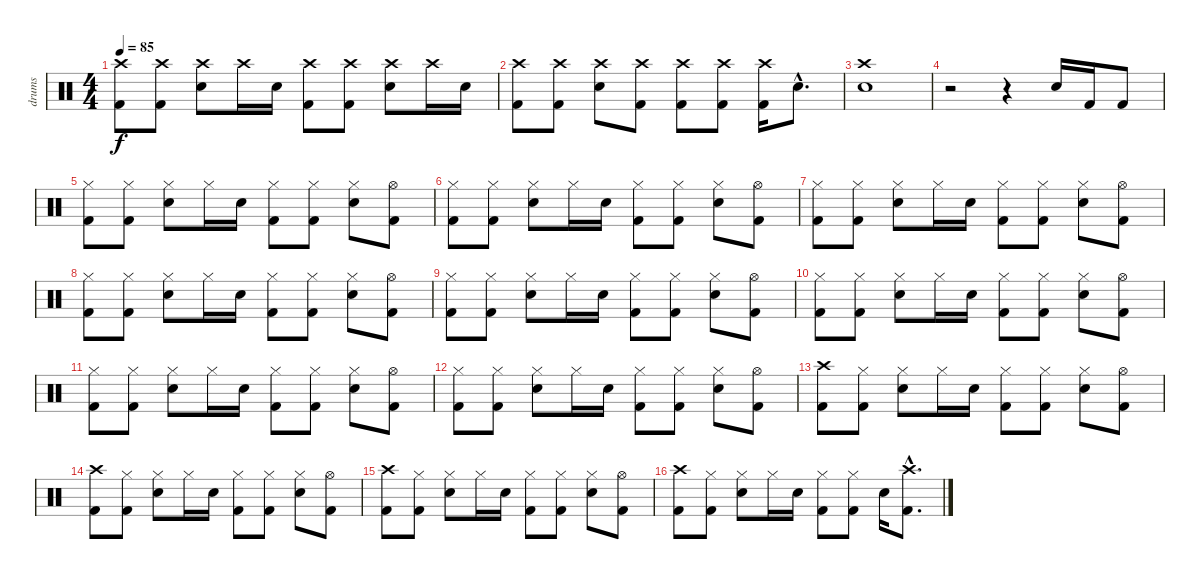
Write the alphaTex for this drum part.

\track ("drums" "drums") {instrument percussion}
\staff {score}
\articulation defaults
\ts (4 4)
\tempo 85
\clef neutral
\ks c
("Crash high (hit)" "Kick (hit) 2").8{dy f} ("Crash high (hit)" "Kick (hit) 2").8 ("Crash high (hit)" "Snare (hit) 2").8 "Crash high (hit)".16 "Snare (hit) 2".16 ("Crash high (hit)" "Kick (hit) 2").8 ("Crash high (hit)" "Kick (hit) 2").8 ("Crash high (hit)" "Snare (hit) 2").8 "Crash high (hit)".16 "Snare (hit) 2".16 |
("Crash high (hit)" "Kick (hit) 2").8 ("Crash high (hit)" "Kick (hit) 2").8 ("Crash high (hit)" "Snare (hit) 2").8 ("Crash high (hit)" "Kick (hit) 2").8 ("Crash high (hit)" "Kick (hit) 2").8 ("Crash high (hit)" "Kick (hit) 2").8 ("Crash high (hit)" "Kick (hit) 2").16 "Snare (hit) 2"{hac}.8{d} |
("Crash high (hit)" "Snare (hit) 2").1 |
r.2 r.4 "Snare (hit) 2".16 "Kick (hit) 2".16 "Kick (hit) 2".8 |
("Hi-Hat (closed)" "Kick (hit) 2").8 ("Hi-Hat (closed)" "Kick (hit) 2").8 ("Hi-Hat (closed)" "Snare (hit) 2").8 "Hi-Hat (closed)".16 "Snare (hit) 2".16 ("Hi-Hat (closed)" "Kick (hit) 2").8 ("Hi-Hat (closed)" "Kick (hit) 2").8 ("Hi-Hat (closed)" "Snare (hit) 2").8 ("Hi-Hat (open)" "Kick (hit) 2").8 |
("Hi-Hat (closed)" "Kick (hit) 2").8 ("Hi-Hat (closed)" "Kick (hit) 2").8 ("Hi-Hat (closed)" "Snare (hit) 2").8 "Hi-Hat (closed)".16 "Snare (hit) 2".16 ("Hi-Hat (closed)" "Kick (hit) 2").8 ("Hi-Hat (closed)" "Kick (hit) 2").8 ("Hi-Hat (closed)" "Snare (hit) 2").8 ("Hi-Hat (open)" "Kick (hit) 2").8 |
("Hi-Hat (closed)" "Kick (hit) 2").8 ("Hi-Hat (closed)" "Kick (hit) 2").8 ("Hi-Hat (closed)" "Snare (hit) 2").8 "Hi-Hat (closed)".16 "Snare (hit) 2".16 ("Hi-Hat (closed)" "Kick (hit) 2").8 ("Hi-Hat (closed)" "Kick (hit) 2").8 ("Hi-Hat (closed)" "Snare (hit) 2").8 ("Hi-Hat (open)" "Kick (hit) 2").8 |
("Hi-Hat (closed)" "Kick (hit) 2").8 ("Hi-Hat (closed)" "Kick (hit) 2").8 ("Hi-Hat (closed)" "Snare (hit) 2").8 "Hi-Hat (closed)".16 "Snare (hit) 2".16 ("Hi-Hat (closed)" "Kick (hit) 2").8 ("Hi-Hat (closed)" "Kick (hit) 2").8 ("Hi-Hat (closed)" "Snare (hit) 2").8 ("Hi-Hat (open)" "Kick (hit) 2").8 |
("Hi-Hat (closed)" "Kick (hit) 2").8 ("Hi-Hat (closed)" "Kick (hit) 2").8 ("Hi-Hat (closed)" "Snare (hit) 2").8 "Hi-Hat (closed)".16 "Snare (hit) 2".16 ("Hi-Hat (closed)" "Kick (hit) 2").8 ("Hi-Hat (closed)" "Kick (hit) 2").8 ("Hi-Hat (closed)" "Snare (hit) 2").8 ("Hi-Hat (open)" "Kick (hit) 2").8 |
("Hi-Hat (closed)" "Kick (hit) 2").8 ("Hi-Hat (closed)" "Kick (hit) 2").8 ("Hi-Hat (closed)" "Snare (hit) 2").8 "Hi-Hat (closed)".16 "Snare (hit) 2".16 ("Hi-Hat (closed)" "Kick (hit) 2").8 ("Hi-Hat (closed)" "Kick (hit) 2").8 ("Hi-Hat (closed)" "Snare (hit) 2").8 ("Hi-Hat (open)" "Kick (hit) 2").8 |
("Hi-Hat (closed)" "Kick (hit) 2").8 ("Hi-Hat (closed)" "Kick (hit) 2").8 ("Hi-Hat (closed)" "Snare (hit) 2").8 "Hi-Hat (closed)".16 "Snare (hit) 2".16 ("Hi-Hat (closed)" "Kick (hit) 2").8 ("Hi-Hat (closed)" "Kick (hit) 2").8 ("Hi-Hat (closed)" "Snare (hit) 2").8 ("Hi-Hat (open)" "Kick (hit) 2").8 |
("Hi-Hat (closed)" "Kick (hit) 2").8 ("Hi-Hat (closed)" "Kick (hit) 2").8 ("Hi-Hat (closed)" "Snare (hit) 2").8 "Hi-Hat (closed)".16 "Snare (hit) 2".16 ("Hi-Hat (closed)" "Kick (hit) 2").8 ("Hi-Hat (closed)" "Kick (hit) 2").8 ("Hi-Hat (closed)" "Snare (hit) 2").8 ("Hi-Hat (open)" "Kick (hit) 2").8 |
("Crash high (hit)" "Kick (hit) 2").8 ("Hi-Hat (closed)" "Kick (hit) 2").8 ("Hi-Hat (closed)" "Snare (hit) 2").8 "Hi-Hat (closed)".16 "Snare (hit) 2".16 ("Hi-Hat (closed)" "Kick (hit) 2").8 ("Hi-Hat (closed)" "Kick (hit) 2").8 ("Hi-Hat (closed)" "Snare (hit) 2").8 ("Hi-Hat (open)" "Kick (hit) 2").8 |
("Crash high (hit)" "Kick (hit) 2").8 ("Hi-Hat (closed)" "Kick (hit) 2").8 ("Hi-Hat (closed)" "Snare (hit) 2").8 "Hi-Hat (closed)".16 "Snare (hit) 2".16 ("Hi-Hat (closed)" "Kick (hit) 2").8 ("Hi-Hat (closed)" "Kick (hit) 2").8 ("Hi-Hat (closed)" "Snare (hit) 2").8 ("Hi-Hat (open)" "Kick (hit) 2").8 |
("Crash high (hit)" "Kick (hit) 2").8 ("Hi-Hat (closed)" "Kick (hit) 2").8 ("Hi-Hat (closed)" "Snare (hit) 2").8 "Hi-Hat (closed)".16 "Snare (hit) 2".16 ("Hi-Hat (closed)" "Kick (hit) 2").8 ("Hi-Hat (closed)" "Kick (hit) 2").8 ("Hi-Hat (closed)" "Snare (hit) 2").8 ("Hi-Hat (open)" "Kick (hit) 2").8 |
("Crash high (hit)" "Kick (hit) 2").8 ("Hi-Hat (closed)" "Kick (hit) 2").8 ("Hi-Hat (closed)" "Snare (hit) 2").8 "Hi-Hat (closed)".16 "Snare (hit) 2".16 ("Hi-Hat (closed)" "Kick (hit) 2").8 ("Hi-Hat (closed)" "Kick (hit) 2").8 "Snare (hit) 2".16 ("Crash high (hit)"{hac} "Kick (hit) 2"{hac}).8{d}
